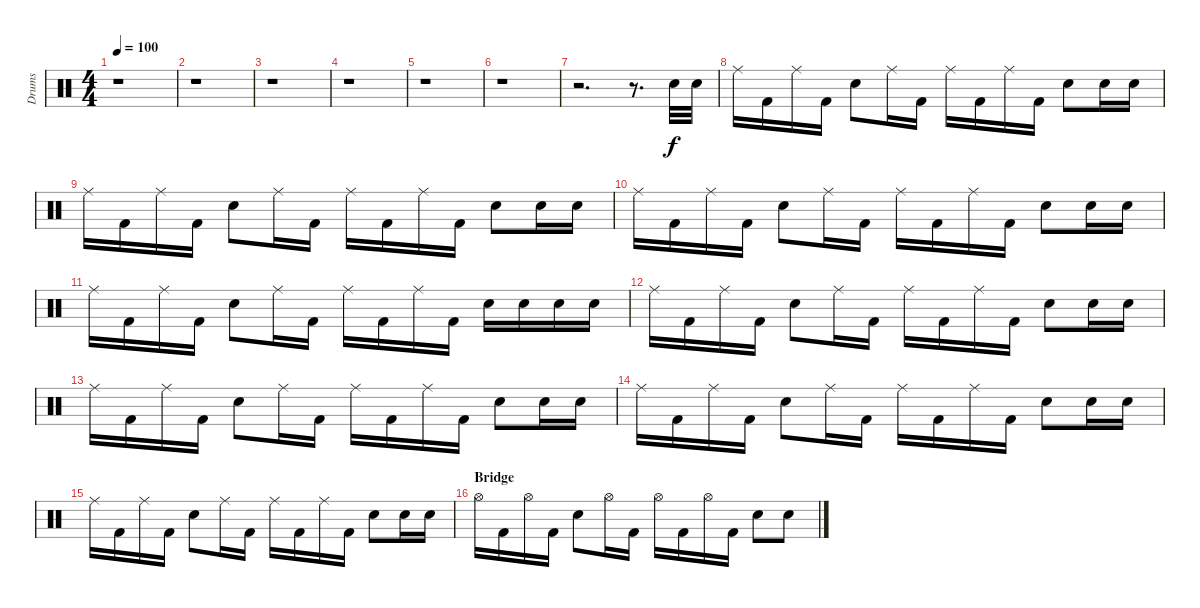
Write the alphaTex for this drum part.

\track ("Drums" "Drums") {instrument percussion}
\staff {score}
\articulation defaults
\ts (4 4)
\tempo 100
\clef neutral
\ks c
r.1{dy fff} |
r.1 |
r.1 |
r.1 |
r.1 |
r.1 |
r.2{d} r.8{d} "Snare (hit) 2".32{dy f} "Snare (hit) 2".32 |
"Ride (middle)".16 "Kick (hit) 2".16 "Ride (middle)".16 "Kick (hit) 2".16 "Snare (hit) 2".8 "Ride (middle)".16 "Kick (hit) 2".16 "Ride (middle)".16 "Kick (hit) 2".16 "Ride (middle)".16 "Kick (hit) 2".16 "Snare (hit) 2".8 "Snare (hit) 2".16 "Snare (hit) 2".16 |
"Ride (middle)".16 "Kick (hit) 2".16 "Ride (middle)".16 "Kick (hit) 2".16 "Snare (hit) 2".8 "Ride (middle)".16 "Kick (hit) 2".16 "Ride (middle)".16 "Kick (hit) 2".16 "Ride (middle)".16 "Kick (hit) 2".16 "Snare (hit) 2".8 "Snare (hit) 2".16 "Snare (hit) 2".16 |
"Ride (middle)".16 "Kick (hit) 2".16 "Ride (middle)".16 "Kick (hit) 2".16 "Snare (hit) 2".8 "Ride (middle)".16 "Kick (hit) 2".16 "Ride (middle)".16 "Kick (hit) 2".16 "Ride (middle)".16 "Kick (hit) 2".16 "Snare (hit) 2".8 "Snare (hit) 2".16 "Snare (hit) 2".16 |
"Ride (middle)".16 "Kick (hit) 2".16 "Ride (middle)".16 "Kick (hit) 2".16 "Snare (hit) 2".8 "Ride (middle)".16 "Kick (hit) 2".16 "Ride (middle)".16 "Kick (hit) 2".16 "Ride (middle)".16 "Kick (hit) 2".16 "Snare (hit) 2".16 "Snare (hit) 2".16 "Snare (hit) 2".16 "Snare (hit) 2".16 |
"Ride (middle)".16 "Kick (hit) 2".16 "Ride (middle)".16 "Kick (hit) 2".16 "Snare (hit) 2".8 "Ride (middle)".16 "Kick (hit) 2".16 "Ride (middle)".16 "Kick (hit) 2".16 "Ride (middle)".16 "Kick (hit) 2".16 "Snare (hit) 2".8 "Snare (hit) 2".16 "Snare (hit) 2".16 |
"Ride (middle)".16 "Kick (hit) 2".16 "Ride (middle)".16 "Kick (hit) 2".16 "Snare (hit) 2".8 "Ride (middle)".16 "Kick (hit) 2".16 "Ride (middle)".16 "Kick (hit) 2".16 "Ride (middle)".16 "Kick (hit) 2".16 "Snare (hit) 2".8 "Snare (hit) 2".16 "Snare (hit) 2".16 |
"Ride (middle)".16 "Kick (hit) 2".16 "Ride (middle)".16 "Kick (hit) 2".16 "Snare (hit) 2".8 "Ride (middle)".16 "Kick (hit) 2".16 "Ride (middle)".16 "Kick (hit) 2".16 "Ride (middle)".16 "Kick (hit) 2".16 "Snare (hit) 2".8 "Snare (hit) 2".16 "Snare (hit) 2".16 |
"Ride (middle)".16 "Kick (hit) 2".16 "Ride (middle)".16 "Kick (hit) 2".16 "Snare (hit) 2".8 "Ride (middle)".16 "Kick (hit) 2".16 "Ride (middle)".16 "Kick (hit) 2".16 "Ride (middle)".16 "Kick (hit) 2".16 "Snare (hit) 2".8 "Snare (hit) 2".16 "Snare (hit) 2".16 |
\section ("" "Bridge")
"Hi-Hat (open)".16 "Kick (hit) 2".16 "Hi-Hat (open)".16 "Kick (hit) 2".16 "Snare (hit) 2".8 "Hi-Hat (open)".16 "Kick (hit) 2".16 "Hi-Hat (open)".16 "Kick (hit) 2".16 "Hi-Hat (open)".16 "Kick (hit) 2".16 "Snare (hit) 2".8 "Snare (hit) 2".8
